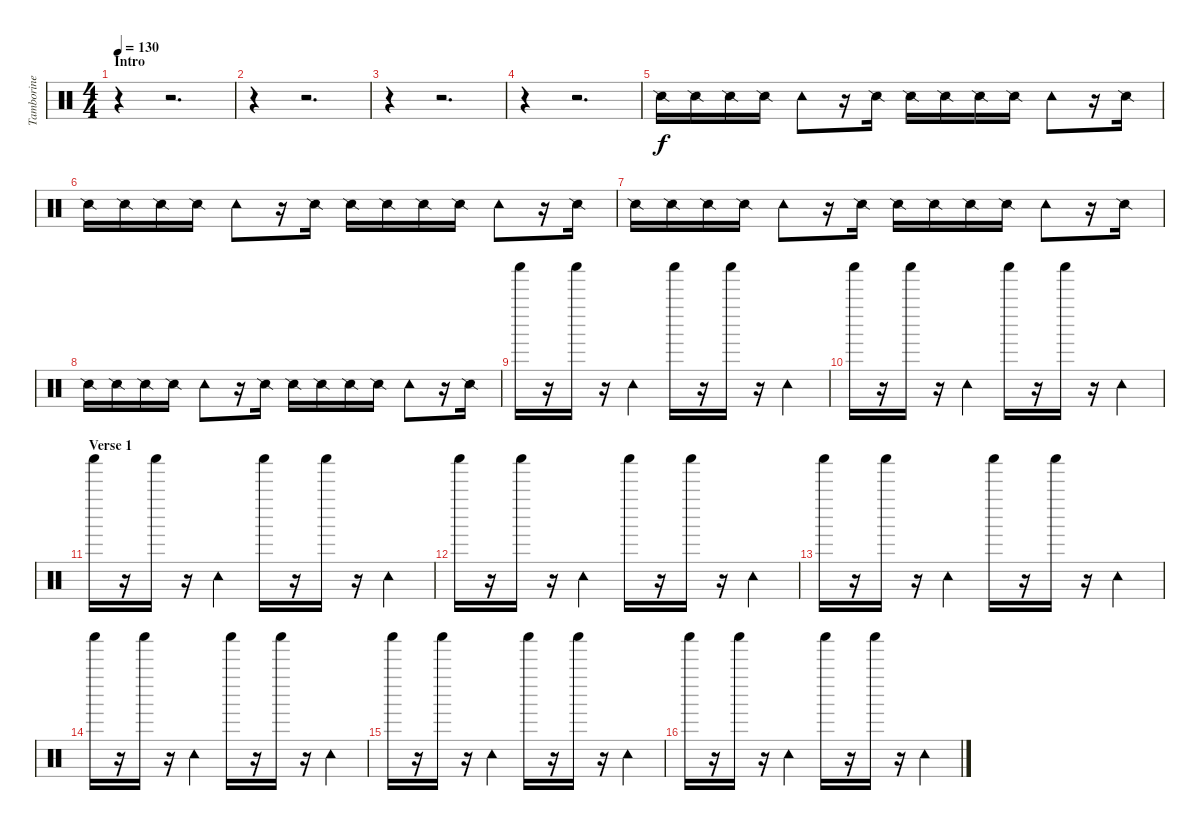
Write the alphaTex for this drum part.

\track ("Tamborine" "Tamborine") {instrument percussion}
\staff {score}
\articulation defaults
\ts (4 4)
\section ("" "Intro")
\tempo 130
\clef neutral
\ks c
r.4{dy f} r.2{d} |
r.4 r.2{d} |
r.4 r.2{d} |
r.4 r.2{d} |
"Snare (side stick) 2".16 "Snare (side stick) 2".16 "Snare (side stick) 2".16 "Snare (side stick) 2".16 "Tambourine (hit)".8 r.16 "Snare (side stick) 2".16 "Snare (side stick) 2".16 "Snare (side stick) 2".16 "Snare (side stick) 2".16 "Snare (side stick) 2".16 "Tambourine (hit)".8 r.16 "Snare (side stick) 2".16 |
"Snare (side stick) 2".16 "Snare (side stick) 2".16 "Snare (side stick) 2".16 "Snare (side stick) 2".16 "Tambourine (hit)".8 r.16 "Snare (side stick) 2".16 "Snare (side stick) 2".16 "Snare (side stick) 2".16 "Snare (side stick) 2".16 "Snare (side stick) 2".16 "Tambourine (hit)".8 r.16 "Snare (side stick) 2".16 |
"Snare (side stick) 2".16 "Snare (side stick) 2".16 "Snare (side stick) 2".16 "Snare (side stick) 2".16 "Tambourine (hit)".8 r.16 "Snare (side stick) 2".16 "Snare (side stick) 2".16 "Snare (side stick) 2".16 "Snare (side stick) 2".16 "Snare (side stick) 2".16 "Tambourine (hit)".8 r.16 "Snare (side stick) 2".16 |
"Snare (side stick) 2".16 "Snare (side stick) 2".16 "Snare (side stick) 2".16 "Snare (side stick) 2".16 "Tambourine (hit)".8 r.16 "Snare (side stick) 2".16 "Snare (side stick) 2".16 "Snare (side stick) 2".16 "Snare (side stick) 2".16 "Snare (side stick) 2".16 "Tambourine (hit)".8 r.16 "Snare (side stick) 2".16 |
"Shaker (hit)".16 r.16 "Shaker (hit)".16 r.16 "Tambourine (hit)".4 "Shaker (hit)".16 r.16 "Shaker (hit)".16 r.16 "Tambourine (hit)".4 |
"Shaker (hit)".16 r.16 "Shaker (hit)".16 r.16 "Tambourine (hit)".4 "Shaker (hit)".16 r.16 "Shaker (hit)".16 r.16 "Tambourine (hit)".4 |
\section ("" "Verse 1")
"Shaker (hit)".16 r.16 "Shaker (hit)".16 r.16 "Tambourine (hit)".4 "Shaker (hit)".16 r.16 "Shaker (hit)".16 r.16 "Tambourine (hit)".4 |
"Shaker (hit)".16 r.16 "Shaker (hit)".16 r.16 "Tambourine (hit)".4 "Shaker (hit)".16 r.16 "Shaker (hit)".16 r.16 "Tambourine (hit)".4 |
"Shaker (hit)".16 r.16 "Shaker (hit)".16 r.16 "Tambourine (hit)".4 "Shaker (hit)".16 r.16 "Shaker (hit)".16 r.16 "Tambourine (hit)".4 |
"Shaker (hit)".16 r.16 "Shaker (hit)".16 r.16 "Tambourine (hit)".4 "Shaker (hit)".16 r.16 "Shaker (hit)".16 r.16 "Tambourine (hit)".4 |
"Shaker (hit)".16 r.16 "Shaker (hit)".16 r.16 "Tambourine (hit)".4 "Shaker (hit)".16 r.16 "Shaker (hit)".16 r.16 "Tambourine (hit)".4 |
"Shaker (hit)".16 r.16 "Shaker (hit)".16 r.16 "Tambourine (hit)".4 "Shaker (hit)".16 r.16 "Shaker (hit)".16 r.16 "Tambourine (hit)".4
